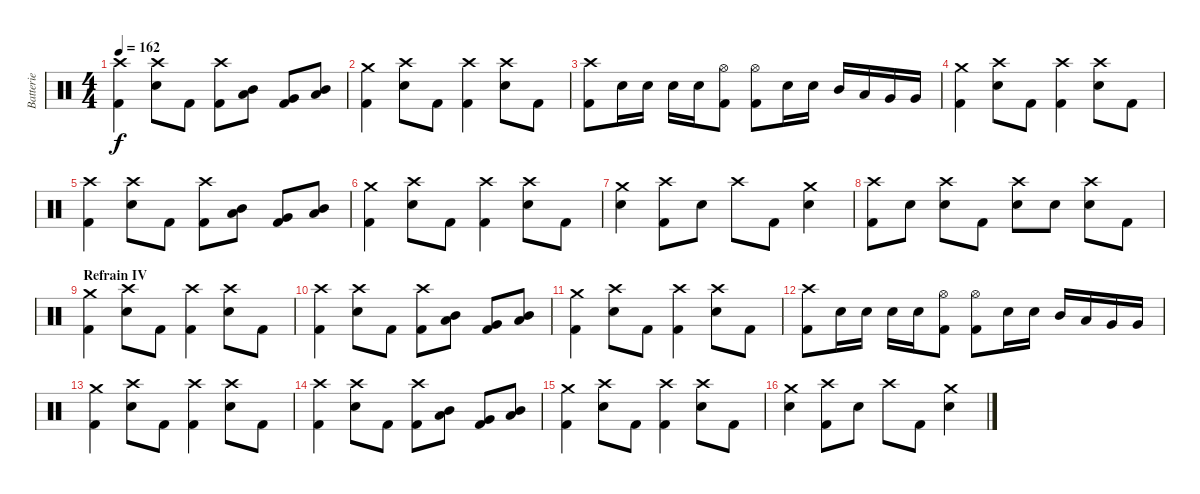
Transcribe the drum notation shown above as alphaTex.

\track ("Batterie" "Batterie") {instrument percussion}
\staff {score}
\articulation defaults
\ts (4 4)
\tempo 162
\clef neutral
\ks c
("Crash high (hit)" "Kick (hit) 2").4{dy f} ("Crash high (hit)" "Electric Snare (hit)").8 "Kick (hit) 2".8 ("Crash high (hit)" "Kick (hit) 2").8 ("Mid Tom (hit)" "Low Tom (hit)").8 ("Very Low Tom (hit)" "Kick (hit) 2").8 ("Mid Tom (hit)" "Low Tom (hit)").8 |
("Crash medium (hit)" "Kick (hit) 2").4 ("Crash high (hit)" "Electric Snare (hit)").8 "Kick (hit) 2".8 ("Crash high (hit)" "Kick (hit) 2").4 ("Crash high (hit)" "Electric Snare (hit)").8 "Kick (hit) 2".8 |
("Crash high (hit)" "Kick (hit) 2").8 "Electric Snare (hit)".16 "Electric Snare (hit)".16 "Electric Snare (hit)".16 "Electric Snare (hit)".16 ("Hi-Hat (open)" "Kick (hit) 2").8 ("Hi-Hat (open)" "Kick (hit) 2").8 "Electric Snare (hit)".16 "Electric Snare (hit)".16 "Mid Tom (hit)".16 "Low Tom (hit)".16 "Very Low Tom (hit)".16 "Very Low Tom (hit)".16 |
("Crash medium (hit)" "Kick (hit) 2").4 ("Crash high (hit)" "Electric Snare (hit)").8 "Kick (hit) 2".8 ("Crash high (hit)" "Kick (hit) 2").4 ("Crash high (hit)" "Electric Snare (hit)").8 "Kick (hit) 2".8 |
("Crash high (hit)" "Kick (hit) 2").4 ("Crash high (hit)" "Electric Snare (hit)").8 "Kick (hit) 2".8 ("Crash high (hit)" "Kick (hit) 2").8 ("Mid Tom (hit)" "Low Tom (hit)").8 ("Very Low Tom (hit)" "Kick (hit) 2").8 ("Mid Tom (hit)" "Low Tom (hit)").8 |
("Crash medium (hit)" "Kick (hit) 2").4 ("Crash high (hit)" "Electric Snare (hit)").8 "Kick (hit) 2".8 ("Crash high (hit)" "Kick (hit) 2").4 ("Crash high (hit)" "Electric Snare (hit)").8 "Kick (hit) 2".8 |
("Crash medium (hit)" "Electric Snare (hit)").4 ("Crash high (hit)" "Kick (hit) 2").8 "Electric Snare (hit)".8 "Crash high (hit)".8 "Kick (hit) 2".8 ("Crash medium (hit)" "Electric Snare (hit)").4 |
("Crash high (hit)" "Kick (hit) 2").8 "Electric Snare (hit)".8 ("Crash high (hit)" "Electric Snare (hit)").8 "Kick (hit) 2".8 ("Crash high (hit)" "Electric Snare (hit)").8 "Electric Snare (hit)".8 ("Crash high (hit)" "Electric Snare (hit)").8 "Kick (hit) 2".8 |
\section ("" "Refrain IV")
("Crash medium (hit)" "Kick (hit) 2").4 ("Crash high (hit)" "Electric Snare (hit)").8 "Kick (hit) 2".8 ("Crash high (hit)" "Kick (hit) 2").4 ("Crash high (hit)" "Electric Snare (hit)").8 "Kick (hit) 2".8 |
("Crash high (hit)" "Kick (hit) 2").4 ("Crash high (hit)" "Electric Snare (hit)").8 "Kick (hit) 2".8 ("Crash high (hit)" "Kick (hit) 2").8 ("Mid Tom (hit)" "Low Tom (hit)").8 ("Very Low Tom (hit)" "Kick (hit) 2").8 ("Mid Tom (hit)" "Low Tom (hit)").8 |
("Crash medium (hit)" "Kick (hit) 2").4 ("Crash high (hit)" "Electric Snare (hit)").8 "Kick (hit) 2".8 ("Crash high (hit)" "Kick (hit) 2").4 ("Crash high (hit)" "Electric Snare (hit)").8 "Kick (hit) 2".8 |
("Crash high (hit)" "Kick (hit) 2").8 "Electric Snare (hit)".16 "Electric Snare (hit)".16 "Electric Snare (hit)".16 "Electric Snare (hit)".16 ("Hi-Hat (open)" "Kick (hit) 2").8 ("Hi-Hat (open)" "Kick (hit) 2").8 "Electric Snare (hit)".16 "Electric Snare (hit)".16 "Mid Tom (hit)".16 "Low Tom (hit)".16 "Very Low Tom (hit)".16 "Very Low Tom (hit)".16 |
("Crash medium (hit)" "Kick (hit) 2").4 ("Crash high (hit)" "Electric Snare (hit)").8 "Kick (hit) 2".8 ("Crash high (hit)" "Kick (hit) 2").4 ("Crash high (hit)" "Electric Snare (hit)").8 "Kick (hit) 2".8 |
("Crash high (hit)" "Kick (hit) 2").4 ("Crash high (hit)" "Electric Snare (hit)").8 "Kick (hit) 2".8 ("Crash high (hit)" "Kick (hit) 2").8 ("Mid Tom (hit)" "Low Tom (hit)").8 ("Very Low Tom (hit)" "Kick (hit) 2").8 ("Mid Tom (hit)" "Low Tom (hit)").8 |
("Crash medium (hit)" "Kick (hit) 2").4 ("Crash high (hit)" "Electric Snare (hit)").8 "Kick (hit) 2".8 ("Crash high (hit)" "Kick (hit) 2").4 ("Crash high (hit)" "Electric Snare (hit)").8 "Kick (hit) 2".8 |
("Crash medium (hit)" "Electric Snare (hit)").4 ("Crash high (hit)" "Kick (hit) 2").8 "Electric Snare (hit)".8 "Crash high (hit)".8 "Kick (hit) 2".8 ("Crash medium (hit)" "Electric Snare (hit)").4
